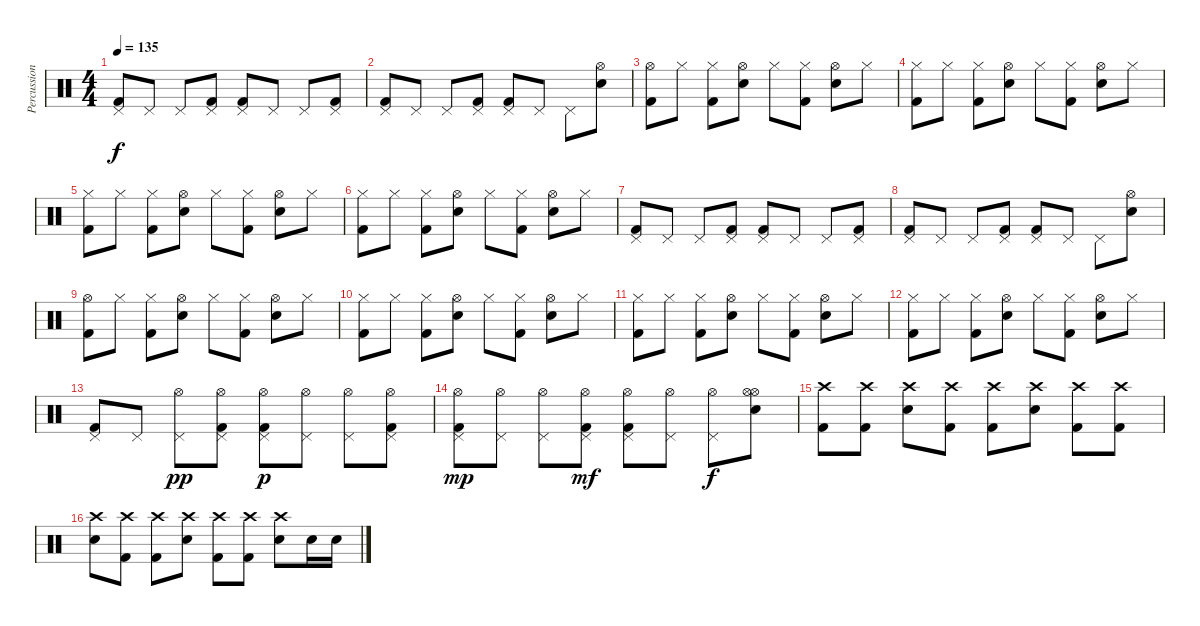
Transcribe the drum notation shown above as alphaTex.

\track ("Percussions" "Percussion") {instrument percussion}
\staff {score}
\articulation defaults
\ts (4 4)
\tempo 135
\clef neutral
\ks c
("Pedal Hi-Hat (hit)" "Kick (hit) 2").8{dy f} "Pedal Hi-Hat (hit)".8 "Pedal Hi-Hat (hit)".8 ("Pedal Hi-Hat (hit)" "Kick (hit) 2").8 ("Pedal Hi-Hat (hit)" "Kick (hit) 2").8 "Pedal Hi-Hat (hit)".8 "Pedal Hi-Hat (hit)".8 ("Pedal Hi-Hat (hit)" "Kick (hit) 2").8 |
("Pedal Hi-Hat (hit)" "Kick (hit) 2").8 "Pedal Hi-Hat (hit)".8 "Pedal Hi-Hat (hit)".8 ("Pedal Hi-Hat (hit)" "Kick (hit) 2").8 ("Pedal Hi-Hat (hit)" "Kick (hit) 2").8 "Pedal Hi-Hat (hit)".8 "Pedal Hi-Hat (hit)".8 ("Hi-Hat (open)" "Snare (hit) 2").8 |
("Hi-Hat (open)" "Kick (hit) 2").8 "Hi-Hat (closed)".8 ("Hi-Hat (closed)" "Kick (hit) 2").8 ("Hi-Hat (open)" "Snare (hit) 2").8 "Hi-Hat (closed)".8 ("Hi-Hat (closed)" "Kick (hit) 2").8 ("Hi-Hat (open)" "Snare (hit) 2").8 "Hi-Hat (closed)".8 |
("Hi-Hat (closed)" "Kick (hit) 2").8 "Hi-Hat (closed)".8 ("Hi-Hat (closed)" "Kick (hit) 2").8 ("Hi-Hat (open)" "Snare (hit) 2").8 "Hi-Hat (closed)".8 ("Hi-Hat (closed)" "Kick (hit) 2").8 ("Hi-Hat (open)" "Snare (hit) 2").8 "Hi-Hat (closed)".8 |
("Hi-Hat (closed)" "Kick (hit) 2").8 "Hi-Hat (closed)".8 ("Hi-Hat (closed)" "Kick (hit) 2").8 ("Hi-Hat (open)" "Snare (hit) 2").8 "Hi-Hat (closed)".8 ("Hi-Hat (closed)" "Kick (hit) 2").8 ("Hi-Hat (open)" "Snare (hit) 2").8 "Hi-Hat (closed)".8 |
("Hi-Hat (closed)" "Kick (hit) 2").8 "Hi-Hat (closed)".8 ("Hi-Hat (closed)" "Kick (hit) 2").8 ("Hi-Hat (open)" "Snare (hit) 2").8 "Hi-Hat (closed)".8 ("Hi-Hat (closed)" "Kick (hit) 2").8 ("Hi-Hat (open)" "Snare (hit) 2").8 "Hi-Hat (closed)".8 |
("Pedal Hi-Hat (hit)" "Kick (hit) 2").8 "Pedal Hi-Hat (hit)".8 "Pedal Hi-Hat (hit)".8 ("Pedal Hi-Hat (hit)" "Kick (hit) 2").8 ("Pedal Hi-Hat (hit)" "Kick (hit) 2").8 "Pedal Hi-Hat (hit)".8 "Pedal Hi-Hat (hit)".8 ("Pedal Hi-Hat (hit)" "Kick (hit) 2").8 |
("Pedal Hi-Hat (hit)" "Kick (hit) 2").8 "Pedal Hi-Hat (hit)".8 "Pedal Hi-Hat (hit)".8 ("Pedal Hi-Hat (hit)" "Kick (hit) 2").8 ("Pedal Hi-Hat (hit)" "Kick (hit) 2").8 "Pedal Hi-Hat (hit)".8 "Pedal Hi-Hat (hit)".8 ("Hi-Hat (open)" "Snare (hit) 2").8 |
("Hi-Hat (open)" "Kick (hit) 2").8 "Hi-Hat (closed)".8 ("Hi-Hat (closed)" "Kick (hit) 2").8 ("Hi-Hat (open)" "Snare (hit) 2").8 "Hi-Hat (closed)".8 ("Hi-Hat (closed)" "Kick (hit) 2").8 ("Hi-Hat (open)" "Snare (hit) 2").8 "Hi-Hat (closed)".8 |
("Hi-Hat (closed)" "Kick (hit) 2").8 "Hi-Hat (closed)".8 ("Hi-Hat (closed)" "Kick (hit) 2").8 ("Hi-Hat (open)" "Snare (hit) 2").8 "Hi-Hat (closed)".8 ("Hi-Hat (closed)" "Kick (hit) 2").8 ("Hi-Hat (open)" "Snare (hit) 2").8 "Hi-Hat (closed)".8 |
("Hi-Hat (closed)" "Kick (hit) 2").8 "Hi-Hat (closed)".8 ("Hi-Hat (closed)" "Kick (hit) 2").8 ("Hi-Hat (open)" "Snare (hit) 2").8 "Hi-Hat (closed)".8 ("Hi-Hat (closed)" "Kick (hit) 2").8 ("Hi-Hat (open)" "Snare (hit) 2").8 "Hi-Hat (closed)".8 |
("Hi-Hat (closed)" "Kick (hit) 2").8 "Hi-Hat (closed)".8 ("Hi-Hat (closed)" "Kick (hit) 2").8 ("Hi-Hat (open)" "Snare (hit) 2").8 "Hi-Hat (closed)".8 ("Hi-Hat (closed)" "Kick (hit) 2").8 ("Hi-Hat (open)" "Snare (hit) 2").8 "Hi-Hat (closed)".8 |
("Pedal Hi-Hat (hit)" "Kick (hit) 2").8 "Pedal Hi-Hat (hit)".8 ("Hi-Hat (open)" "Pedal Hi-Hat (hit)").8{dy pp} ("Hi-Hat (open)" "Pedal Hi-Hat (hit)" "Kick (hit) 2").8 ("Hi-Hat (open)" "Pedal Hi-Hat (hit)" "Kick (hit) 2").8{dy p} ("Hi-Hat (open)" "Pedal Hi-Hat (hit)").8 ("Hi-Hat (open)" "Pedal Hi-Hat (hit)").8 ("Hi-Hat (open)" "Pedal Hi-Hat (hit)" "Kick (hit) 2").8 |
("Hi-Hat (open)" "Pedal Hi-Hat (hit)" "Kick (hit) 2").8{dy mp} ("Hi-Hat (open)" "Pedal Hi-Hat (hit)").8 ("Hi-Hat (open)" "Pedal Hi-Hat (hit)").8 ("Hi-Hat (open)" "Pedal Hi-Hat (hit)" "Kick (hit) 2").8{dy mf} ("Hi-Hat (open)" "Pedal Hi-Hat (hit)" "Kick (hit) 2").8 ("Hi-Hat (open)" "Pedal Hi-Hat (hit)").8 ("Hi-Hat (open)" "Pedal Hi-Hat (hit)").8{dy f} ("Hi-Hat (open)" "Hi-Hat (open)" "Snare (hit) 2").8 |
("Crash high (hit)" "Kick (hit) 2").8 ("Crash high (hit)" "Kick (hit) 2").8 ("Crash high (hit)" "Snare (hit) 2").8 ("Crash high (hit)" "Kick (hit) 2").8 ("Crash high (hit)" "Kick (hit) 2").8 ("Crash high (hit)" "Snare (hit) 2").8 ("Crash high (hit)" "Kick (hit) 2").8 ("Crash high (hit)" "Kick (hit) 2").8 |
("Crash high (hit)" "Snare (hit) 2").8 ("Crash high (hit)" "Kick (hit) 2").8 ("Crash high (hit)" "Kick (hit) 2").8 ("Crash high (hit)" "Snare (hit) 2").8 ("Crash high (hit)" "Kick (hit) 2").8 ("Crash high (hit)" "Kick (hit) 2").8 ("Crash high (hit)" "Snare (hit) 2").8 "Snare (hit) 2".16 "Snare (hit) 2".16
